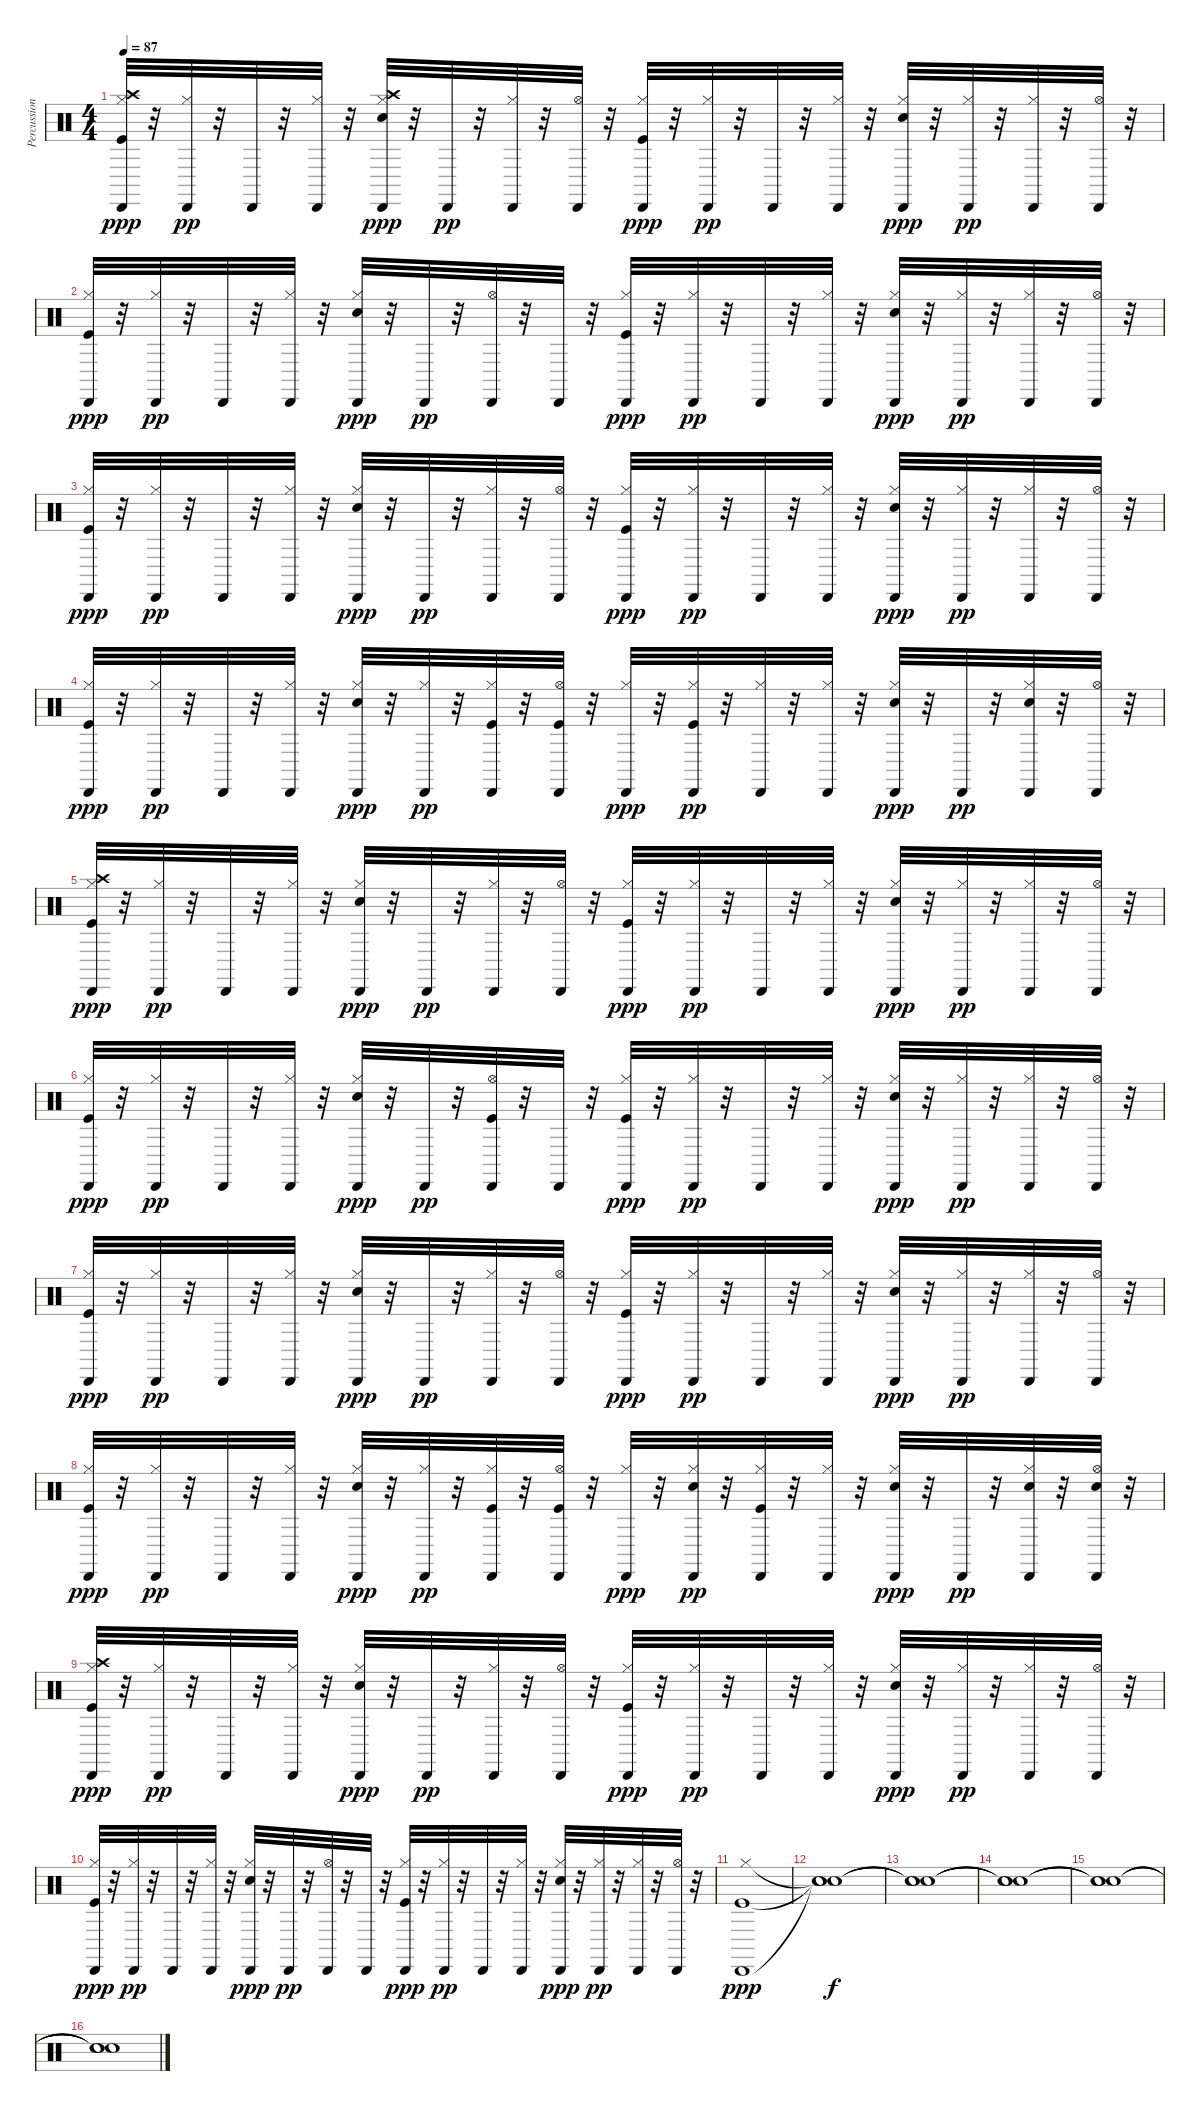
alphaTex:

\track ("Percussion" "Percussion") {instrument percussion}
\staff {score}
\articulation defaults
\ts (4 4)
\tempo 87
\clef neutral
\ks c
("Kick (hit)" "Hi-Hat (closed)" "Crash high (hit)" "Cabasa (hit)").32{dy ppp} r.32 ("Hi-Hat (closed)" "Cabasa (hit)").32{dy pp} r.32 "Cabasa (hit)".32 r.32 ("Hi-Hat (closed)" "Cabasa (hit)").32 r.32 ("Snare (hit) 2" "Hi-Hat (closed)" "Crash high (hit)" "Cabasa (hit)").32{dy ppp} r.32 "Cabasa (hit)".32{dy pp} r.32 ("Hi-Hat (closed)" "Cabasa (hit)").32 r.32 ("Hi-Hat (open)" "Cabasa (hit)").32 r.32 ("Kick (hit)" "Hi-Hat (closed)" "Cabasa (hit)").32{dy ppp} r.32 ("Hi-Hat (closed)" "Cabasa (hit)").32{dy pp} r.32 "Cabasa (hit)".32 r.32 ("Hi-Hat (closed)" "Cabasa (hit)").32 r.32 ("Snare (hit) 2" "Hi-Hat (closed)" "Cabasa (hit)").32{dy ppp} r.32 ("Hi-Hat (closed)" "Cabasa (hit)").32{dy pp} r.32 ("Hi-Hat (closed)" "Cabasa (hit)").32 r.32 ("Hi-Hat (open)" "Cabasa (hit)").32 r.32 |
("Kick (hit)" "Hi-Hat (closed)" "Cabasa (hit)").32{dy ppp} r.32 ("Hi-Hat (closed)" "Cabasa (hit)").32{dy pp} r.32 "Cabasa (hit)".32 r.32 ("Hi-Hat (closed)" "Cabasa (hit)").32 r.32 ("Snare (hit) 2" "Hi-Hat (closed)" "Cabasa (hit)").32{dy ppp} r.32 "Cabasa (hit)".32{dy pp} r.32 ("Hi-Hat (open)" "Cabasa (hit)").32 r.32 "Cabasa (hit)".32 r.32 ("Kick (hit)" "Hi-Hat (closed)" "Cabasa (hit)").32{dy ppp} r.32 ("Hi-Hat (closed)" "Cabasa (hit)").32{dy pp} r.32 "Cabasa (hit)".32 r.32 ("Hi-Hat (closed)" "Cabasa (hit)").32 r.32 ("Snare (hit) 2" "Hi-Hat (closed)" "Cabasa (hit)").32{dy ppp} r.32 ("Hi-Hat (closed)" "Cabasa (hit)").32{dy pp} r.32 ("Hi-Hat (closed)" "Cabasa (hit)").32 r.32 ("Hi-Hat (open)" "Cabasa (hit)").32 r.32 |
("Kick (hit)" "Hi-Hat (closed)" "Cabasa (hit)").32{dy ppp} r.32 ("Hi-Hat (closed)" "Cabasa (hit)").32{dy pp} r.32 "Cabasa (hit)".32 r.32 ("Hi-Hat (closed)" "Cabasa (hit)").32 r.32 ("Snare (hit) 2" "Hi-Hat (closed)" "Cabasa (hit)").32{dy ppp} r.32 "Cabasa (hit)".32{dy pp} r.32 ("Hi-Hat (closed)" "Cabasa (hit)").32 r.32 ("Hi-Hat (open)" "Cabasa (hit)").32 r.32 ("Kick (hit)" "Hi-Hat (closed)" "Cabasa (hit)").32{dy ppp} r.32 ("Hi-Hat (closed)" "Cabasa (hit)").32{dy pp} r.32 "Cabasa (hit)".32 r.32 ("Hi-Hat (closed)" "Cabasa (hit)").32 r.32 ("Snare (hit) 2" "Hi-Hat (closed)" "Cabasa (hit)").32{dy ppp} r.32 ("Hi-Hat (closed)" "Cabasa (hit)").32{dy pp} r.32 ("Hi-Hat (closed)" "Cabasa (hit)").32 r.32 ("Hi-Hat (open)" "Cabasa (hit)").32 r.32 |
("Kick (hit)" "Hi-Hat (closed)" "Cabasa (hit)").32{dy ppp} r.32 ("Hi-Hat (closed)" "Cabasa (hit)").32{dy pp} r.32 "Cabasa (hit)".32 r.32 ("Hi-Hat (closed)" "Cabasa (hit)").32 r.32 ("Snare (hit) 2" "Hi-Hat (closed)" "Cabasa (hit)").32{dy ppp} r.32 ("Hi-Hat (closed)" "Cabasa (hit)").32{dy pp} r.32 ("Kick (hit)" "Hi-Hat (closed)" "Cabasa (hit)").32 r.32 ("Kick (hit)" "Hi-Hat (open)" "Cabasa (hit)").32 r.32 ("Hi-Hat (closed)" "Cabasa (hit)").32{dy ppp} r.32 ("Kick (hit)" "Hi-Hat (closed)" "Cabasa (hit)").32{dy pp} r.32 ("Hi-Hat (closed)" "Cabasa (hit)").32 r.32 ("Hi-Hat (closed)" "Cabasa (hit)").32 r.32 ("Snare (hit) 2" "Hi-Hat (closed)" "Cabasa (hit)").32{dy ppp} r.32 "Cabasa (hit)".32{dy pp} r.32 ("Snare (hit) 2" "Hi-Hat (closed)" "Cabasa (hit)").32 r.32 ("Hi-Hat (open)" "Cabasa (hit)").32 r.32 |
("Kick (hit)" "Hi-Hat (closed)" "Crash high (hit)" "Cabasa (hit)").32{dy ppp} r.32 ("Hi-Hat (closed)" "Cabasa (hit)").32{dy pp} r.32 "Cabasa (hit)".32 r.32 ("Hi-Hat (closed)" "Cabasa (hit)").32 r.32 ("Snare (hit) 2" "Hi-Hat (closed)" "Cabasa (hit)").32{dy ppp} r.32 "Cabasa (hit)".32{dy pp} r.32 ("Hi-Hat (closed)" "Cabasa (hit)").32 r.32 ("Hi-Hat (open)" "Cabasa (hit)").32 r.32 ("Kick (hit)" "Hi-Hat (closed)" "Cabasa (hit)").32{dy ppp} r.32 ("Hi-Hat (closed)" "Cabasa (hit)").32{dy pp} r.32 "Cabasa (hit)".32 r.32 ("Hi-Hat (closed)" "Cabasa (hit)").32 r.32 ("Snare (hit) 2" "Hi-Hat (closed)" "Cabasa (hit)").32{dy ppp} r.32 ("Hi-Hat (closed)" "Cabasa (hit)").32{dy pp} r.32 ("Hi-Hat (closed)" "Cabasa (hit)").32 r.32 ("Hi-Hat (open)" "Cabasa (hit)").32 r.32 |
("Kick (hit)" "Hi-Hat (closed)" "Cabasa (hit)").32{dy ppp} r.32 ("Hi-Hat (closed)" "Cabasa (hit)").32{dy pp} r.32 "Cabasa (hit)".32 r.32 ("Hi-Hat (closed)" "Cabasa (hit)").32 r.32 ("Snare (hit) 2" "Hi-Hat (closed)" "Cabasa (hit)").32{dy ppp} r.32 "Cabasa (hit)".32{dy pp} r.32 ("Kick (hit)" "Hi-Hat (open)" "Cabasa (hit)").32 r.32 "Cabasa (hit)".32 r.32 ("Kick (hit)" "Hi-Hat (closed)" "Cabasa (hit)").32{dy ppp} r.32 ("Hi-Hat (closed)" "Cabasa (hit)").32{dy pp} r.32 "Cabasa (hit)".32 r.32 ("Hi-Hat (closed)" "Cabasa (hit)").32 r.32 ("Snare (hit) 2" "Hi-Hat (closed)" "Cabasa (hit)").32{dy ppp} r.32 ("Hi-Hat (closed)" "Cabasa (hit)").32{dy pp} r.32 ("Hi-Hat (closed)" "Cabasa (hit)").32 r.32 ("Hi-Hat (open)" "Cabasa (hit)").32 r.32 |
("Kick (hit)" "Hi-Hat (closed)" "Cabasa (hit)").32{dy ppp} r.32 ("Hi-Hat (closed)" "Cabasa (hit)").32{dy pp} r.32 "Cabasa (hit)".32 r.32 ("Hi-Hat (closed)" "Cabasa (hit)").32 r.32 ("Snare (hit) 2" "Hi-Hat (closed)" "Cabasa (hit)").32{dy ppp} r.32 "Cabasa (hit)".32{dy pp} r.32 ("Hi-Hat (closed)" "Cabasa (hit)").32 r.32 ("Hi-Hat (open)" "Cabasa (hit)").32 r.32 ("Kick (hit)" "Hi-Hat (closed)" "Cabasa (hit)").32{dy ppp} r.32 ("Hi-Hat (closed)" "Cabasa (hit)").32{dy pp} r.32 "Cabasa (hit)".32 r.32 ("Hi-Hat (closed)" "Cabasa (hit)").32 r.32 ("Snare (hit) 2" "Hi-Hat (closed)" "Cabasa (hit)").32{dy ppp} r.32 ("Hi-Hat (closed)" "Cabasa (hit)").32{dy pp} r.32 ("Hi-Hat (closed)" "Cabasa (hit)").32 r.32 ("Hi-Hat (open)" "Cabasa (hit)").32 r.32 |
("Kick (hit)" "Hi-Hat (closed)" "Cabasa (hit)").32{dy ppp} r.32 ("Hi-Hat (closed)" "Cabasa (hit)").32{dy pp} r.32 "Cabasa (hit)".32 r.32 ("Hi-Hat (closed)" "Cabasa (hit)").32 r.32 ("Snare (hit) 2" "Hi-Hat (closed)" "Cabasa (hit)").32{dy ppp} r.32 ("Hi-Hat (closed)" "Cabasa (hit)").32{dy pp} r.32 ("Kick (hit)" "Hi-Hat (closed)" "Cabasa (hit)").32 r.32 ("Kick (hit)" "Hi-Hat (open)" "Cabasa (hit)").32 r.32 ("Hi-Hat (closed)" "Cabasa (hit)").32{dy ppp} r.32 ("Snare (hit) 2" "Hi-Hat (closed)" "Cabasa (hit)").32{dy pp} r.32 ("Kick (hit)" "Hi-Hat (closed)" "Cabasa (hit)").32 r.32 ("Hi-Hat (closed)" "Cabasa (hit)").32 r.32 ("Snare (hit) 2" "Hi-Hat (closed)" "Cabasa (hit)").32{dy ppp} r.32 "Cabasa (hit)".32{dy pp} r.32 ("Snare (hit) 2" "Hi-Hat (closed)" "Cabasa (hit)").32 r.32 ("Snare (hit) 2" "Hi-Hat (open)" "Cabasa (hit)").32 r.32 |
("Kick (hit)" "Hi-Hat (closed)" "Crash high (hit)" "Cabasa (hit)").32{dy ppp} r.32 ("Hi-Hat (closed)" "Cabasa (hit)").32{dy pp} r.32 "Cabasa (hit)".32 r.32 ("Hi-Hat (closed)" "Cabasa (hit)").32 r.32 ("Snare (hit) 2" "Hi-Hat (closed)" "Cabasa (hit)").32{dy ppp} r.32 "Cabasa (hit)".32{dy pp} r.32 ("Hi-Hat (closed)" "Cabasa (hit)").32 r.32 ("Hi-Hat (open)" "Cabasa (hit)").32 r.32 ("Kick (hit)" "Hi-Hat (closed)" "Cabasa (hit)").32{dy ppp} r.32 ("Hi-Hat (closed)" "Cabasa (hit)").32{dy pp} r.32 "Cabasa (hit)".32 r.32 ("Hi-Hat (closed)" "Cabasa (hit)").32 r.32 ("Snare (hit) 2" "Hi-Hat (closed)" "Cabasa (hit)").32{dy ppp} r.32 ("Hi-Hat (closed)" "Cabasa (hit)").32{dy pp} r.32 ("Hi-Hat (closed)" "Cabasa (hit)").32 r.32 ("Hi-Hat (open)" "Cabasa (hit)").32 r.32 |
("Kick (hit)" "Hi-Hat (closed)" "Cabasa (hit)").32{dy ppp} r.32 ("Hi-Hat (closed)" "Cabasa (hit)").32{dy pp} r.32 "Cabasa (hit)".32 r.32 ("Hi-Hat (closed)" "Cabasa (hit)").32 r.32 ("Snare (hit) 2" "Hi-Hat (closed)" "Cabasa (hit)").32{dy ppp} r.32 "Cabasa (hit)".32{dy pp} r.32 ("Hi-Hat (open)" "Cabasa (hit)").32 r.32 "Cabasa (hit)".32 r.32 ("Kick (hit)" "Hi-Hat (closed)" "Cabasa (hit)").32{dy ppp} r.32 ("Hi-Hat (closed)" "Cabasa (hit)").32{dy pp} r.32 "Cabasa (hit)".32 r.32 ("Hi-Hat (closed)" "Cabasa (hit)").32 r.32 ("Snare (hit) 2" "Hi-Hat (closed)" "Cabasa (hit)").32{dy ppp} r.32 ("Hi-Hat (closed)" "Cabasa (hit)").32{dy pp} r.32 ("Hi-Hat (closed)" "Cabasa (hit)").32 r.32 ("Hi-Hat (open)" "Cabasa (hit)").32 r.32 |
("Kick (hit)" "Hi-Hat (closed)" "Cabasa (hit)").1{dy ppp} |
("Snare (hit)"{t} "Snare (hit)"{t} "Snare (hit)"{t}).1{dy f} |
("Snare (hit)"{t} "Snare (hit)"{t} "Snare (hit)"{t}).1 |
("Snare (hit)"{t} "Snare (hit)"{t} "Snare (hit)"{t}).1 |
("Snare (hit)"{t} "Snare (hit)"{t} "Snare (hit)"{t}).1 |
("Snare (hit)"{t} "Snare (hit)"{t} "Snare (hit)"{t}).1
